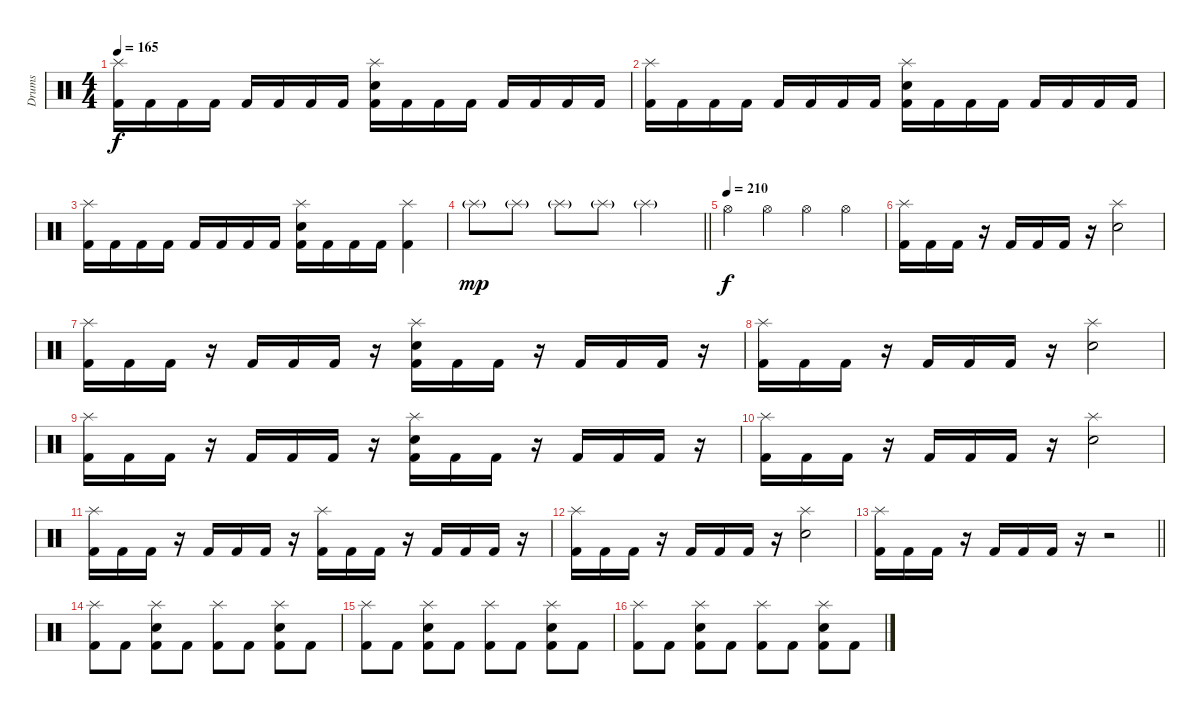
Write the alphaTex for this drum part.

\track ("Drums" "Drums") {instrument percussion}
\staff {score}
\articulation defaults
\ts (4 4)
\tempo 165
\clef neutral
\ks c
("Splash (hit)" "Kick (hit) 2").16{dy f} "Kick (hit) 2".16 "Kick (hit) 2".16 "Kick (hit) 2".16 "Kick (hit) 2".16 "Kick (hit) 2".16 "Kick (hit) 2".16 "Kick (hit) 2".16 ("Splash (hit)" "Snare (hit) 2" "Kick (hit) 2").16 "Kick (hit) 2".16 "Kick (hit) 2".16 "Kick (hit) 2".16 "Kick (hit) 2".16 "Kick (hit) 2".16 "Kick (hit) 2".16 "Kick (hit) 2".16 |
("Splash (hit)" "Kick (hit) 2").16 "Kick (hit) 2".16 "Kick (hit) 2".16 "Kick (hit) 2".16 "Kick (hit) 2".16 "Kick (hit) 2".16 "Kick (hit) 2".16 "Kick (hit) 2".16 ("Splash (hit)" "Snare (hit) 2" "Kick (hit) 2").16 "Kick (hit) 2".16 "Kick (hit) 2".16 "Kick (hit) 2".16 "Kick (hit) 2".16 "Kick (hit) 2".16 "Kick (hit) 2".16 "Kick (hit) 2".16 |
("Splash (hit)" "Kick (hit) 2").16 "Kick (hit) 2".16 "Kick (hit) 2".16 "Kick (hit) 2".16 "Kick (hit) 2".16 "Kick (hit) 2".16 "Kick (hit) 2".16 "Kick (hit) 2".16 ("Splash (hit)" "Snare (hit) 2" "Kick (hit) 2").16 "Kick (hit) 2".16 "Kick (hit) 2".16 "Kick (hit) 2".16 ("Splash (hit)" "Kick (hit) 2").4 |
\barLineRight lightlight "Splash (hit)"{g}.8{dy mp} "Splash (hit)"{g}.8 "Splash (hit)"{g}.8 "Splash (hit)"{g}.8 "Splash (hit)"{g}.2
|
\tempo (210)
"Hi-Hat (open)".4{dy f} "Hi-Hat (open)".4 "Hi-Hat (open)".4 "Hi-Hat (open)".4 |
("Splash (hit)" "Kick (hit) 2").16 "Kick (hit) 2".16 "Kick (hit) 2".16 r.16 "Kick (hit) 2".16 "Kick (hit) 2".16 "Kick (hit) 2".16 r.16 ("Splash (hit)" "Snare (hit) 2").2 |
("Splash (hit)" "Kick (hit) 2").16 "Kick (hit) 2".16 "Kick (hit) 2".16 r.16 "Kick (hit) 2".16 "Kick (hit) 2".16 "Kick (hit) 2".16 r.16 ("Splash (hit)" "Snare (hit) 2" "Kick (hit) 2").16 "Kick (hit) 2".16 "Kick (hit) 2".16 r.16 "Kick (hit) 2".16 "Kick (hit) 2".16 "Kick (hit) 2".16 r.16 |
("Splash (hit)" "Kick (hit) 2").16 "Kick (hit) 2".16 "Kick (hit) 2".16 r.16 "Kick (hit) 2".16 "Kick (hit) 2".16 "Kick (hit) 2".16 r.16 ("Splash (hit)" "Snare (hit) 2").2 |
("Splash (hit)" "Kick (hit) 2").16 "Kick (hit) 2".16 "Kick (hit) 2".16 r.16 "Kick (hit) 2".16 "Kick (hit) 2".16 "Kick (hit) 2".16 r.16 ("Splash (hit)" "Snare (hit) 2" "Kick (hit) 2").16 "Kick (hit) 2".16 "Kick (hit) 2".16 r.16 "Kick (hit) 2".16 "Kick (hit) 2".16 "Kick (hit) 2".16 r.16 |
("Splash (hit)" "Kick (hit) 2").16 "Kick (hit) 2".16 "Kick (hit) 2".16 r.16 "Kick (hit) 2".16 "Kick (hit) 2".16 "Kick (hit) 2".16 r.16 ("Splash (hit)" "Snare (hit) 2").2 |
("Splash (hit)" "Kick (hit) 2").16 "Kick (hit) 2".16 "Kick (hit) 2".16 r.16 "Kick (hit) 2".16 "Kick (hit) 2".16 "Kick (hit) 2".16 r.16 ("Splash (hit)" "Kick (hit) 2").16 "Kick (hit) 2".16 "Kick (hit) 2".16 r.16 "Kick (hit) 2".16 "Kick (hit) 2".16 "Kick (hit) 2".16 r.16 |
("Splash (hit)" "Kick (hit) 2").16 "Kick (hit) 2".16 "Kick (hit) 2".16 r.16 "Kick (hit) 2".16 "Kick (hit) 2".16 "Kick (hit) 2".16 r.16 ("Splash (hit)" "Snare (hit) 2").2 |
\barLineRight lightlight
("Splash (hit)" "Kick (hit) 2").16 "Kick (hit) 2".16 "Kick (hit) 2".16 r.16 "Kick (hit) 2".16 "Kick (hit) 2".16 "Kick (hit) 2".16 r.16 r.2 |
("Splash (hit)" "Kick (hit) 2").8 "Kick (hit) 2".8 ("Splash (hit)" "Snare (hit) 2" "Kick (hit) 2").8 "Kick (hit) 2".8 ("Splash (hit)" "Kick (hit) 2").8 "Kick (hit) 2".8 ("Splash (hit)" "Snare (hit) 2" "Kick (hit) 2").8 "Kick (hit) 2".8 |
("Splash (hit)" "Kick (hit) 2").8 "Kick (hit) 2".8 ("Splash (hit)" "Snare (hit) 2" "Kick (hit) 2").8 "Kick (hit) 2".8 ("Splash (hit)" "Kick (hit) 2").8 "Kick (hit) 2".8 ("Splash (hit)" "Snare (hit) 2" "Kick (hit) 2").8 "Kick (hit) 2".8 |
("Splash (hit)" "Kick (hit) 2").8 "Kick (hit) 2".8 ("Splash (hit)" "Snare (hit) 2" "Kick (hit) 2").8 "Kick (hit) 2".8 ("Splash (hit)" "Kick (hit) 2").8 "Kick (hit) 2".8 ("Splash (hit)" "Snare (hit) 2" "Kick (hit) 2").8 "Kick (hit) 2".8
